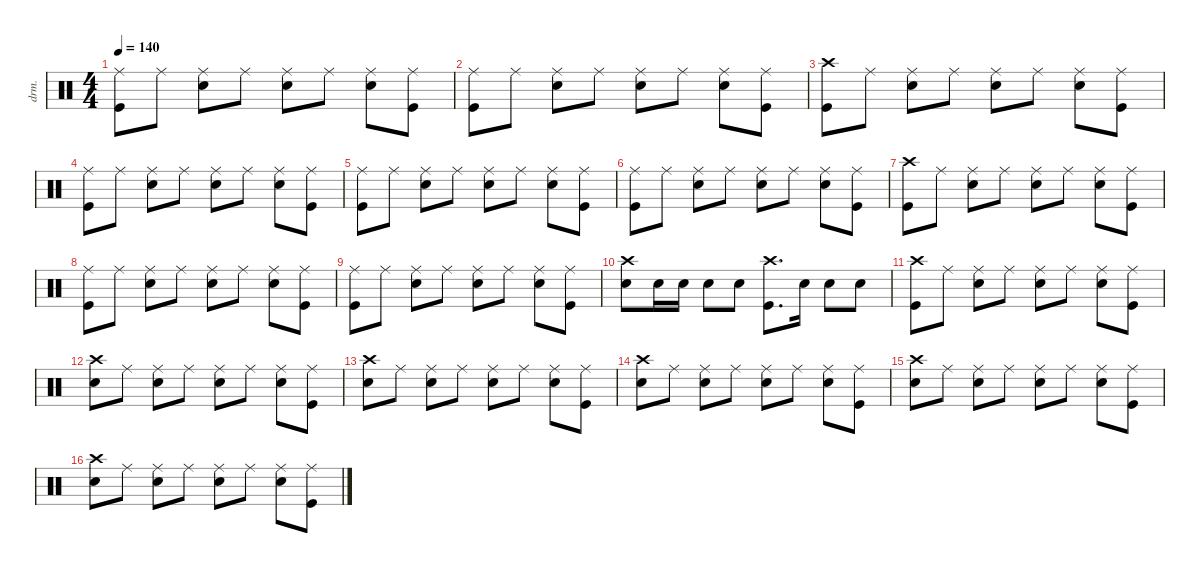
\defaultSystemsLayout 4
\hideDynamics
\bracketExtendMode nobrackets
\otherSystemsTrackNameOrientation horizontal
\track ("Drums" "drm.") {multiBarRest instrument percussion}
\staff
\articulation defaults
\ts (4 4)
\tempo 140
\clef neutral
\ks c
("Ride (middle)" "Kick (hit)").8{dy f} "Ride (middle)".8 ("Ride (middle)" "Snare (hit) 2").8 "Ride (middle)".8 ("Ride (middle)" "Snare (hit) 2").8 "Ride (middle)".8 ("Ride (middle)" "Snare (hit) 2").8 ("Ride (middle)" "Kick (hit)").8 |
("Ride (middle)" "Kick (hit)").8 "Ride (middle)".8 ("Ride (middle)" "Snare (hit) 2").8 "Ride (middle)".8 ("Ride (middle)" "Snare (hit) 2").8 "Ride (middle)".8 ("Ride (middle)" "Snare (hit) 2").8 ("Ride (middle)" "Kick (hit)").8 |
("Crash high (hit)" "Kick (hit)").8 "Ride (middle)".8 ("Ride (middle)" "Snare (hit) 2").8 "Ride (middle)".8 ("Ride (middle)" "Snare (hit) 2").8 "Ride (middle)".8 ("Ride (middle)" "Snare (hit) 2").8 ("Ride (middle)" "Kick (hit)").8 |
("Ride (middle)" "Kick (hit)").8 "Ride (middle)".8 ("Ride (middle)" "Snare (hit) 2").8 "Ride (middle)".8 ("Ride (middle)" "Snare (hit) 2").8 "Ride (middle)".8 ("Ride (middle)" "Snare (hit) 2").8 ("Ride (middle)" "Kick (hit)").8 |
("Ride (middle)" "Kick (hit)").8 "Ride (middle)".8 ("Ride (middle)" "Snare (hit) 2").8 "Ride (middle)".8 ("Ride (middle)" "Snare (hit) 2").8 "Ride (middle)".8 ("Ride (middle)" "Snare (hit) 2").8 ("Ride (middle)" "Kick (hit)").8 |
("Ride (middle)" "Kick (hit)").8 "Ride (middle)".8 ("Ride (middle)" "Snare (hit) 2").8 "Ride (middle)".8 ("Ride (middle)" "Snare (hit) 2").8 "Ride (middle)".8 ("Ride (middle)" "Snare (hit) 2").8 ("Ride (middle)" "Kick (hit)").8 |
("Crash high (hit)" "Kick (hit)").8 "Ride (middle)".8 ("Ride (middle)" "Snare (hit) 2").8 "Ride (middle)".8 ("Ride (middle)" "Snare (hit) 2").8 "Ride (middle)".8 ("Ride (middle)" "Snare (hit) 2").8 ("Ride (middle)" "Kick (hit)").8 |
("Ride (middle)" "Kick (hit)").8 "Ride (middle)".8 ("Ride (middle)" "Snare (hit) 2").8 "Ride (middle)".8 ("Ride (middle)" "Snare (hit) 2").8 "Ride (middle)".8 ("Ride (middle)" "Snare (hit) 2").8 ("Ride (middle)" "Kick (hit)").8 |
("Ride (middle)" "Kick (hit)").8 "Ride (middle)".8 ("Ride (middle)" "Snare (hit) 2").8 "Ride (middle)".8 ("Ride (middle)" "Snare (hit) 2").8 "Ride (middle)".8 ("Ride (middle)" "Snare (hit) 2").8 ("Ride (middle)" "Kick (hit)").8 |
("Crash high (hit)" "Snare (hit) 2").8 "Snare (hit) 2".16{dy mp} "Snare (hit) 2".16 "Snare (hit) 2".8{dy f} "Snare (hit) 2".8 ("Crash high (hit)" "Kick (hit)").8{d} "Snare (hit) 2".16{dy mp} "Snare (hit) 2".8{dy mf} "Snare (hit) 2".8{dy f} |
("Crash high (hit)" "Kick (hit)").8 "Ride (middle)".8 ("Ride (middle)" "Snare (hit) 2").8 "Ride (middle)".8 ("Ride (middle)" "Snare (hit) 2").8 "Ride (middle)".8 ("Ride (middle)" "Snare (hit) 2").8 ("Ride (middle)" "Kick (hit)").8 |
("Crash high (hit)" "Snare (hit) 2").8 "Ride (middle)".8 ("Ride (middle)" "Snare (hit) 2").8 "Ride (middle)".8 ("Ride (middle)" "Snare (hit) 2").8 "Ride (middle)".8 ("Ride (middle)" "Snare (hit) 2").8 ("Ride (middle)" "Kick (hit)").8 |
("Crash high (hit)" "Snare (hit) 2").8 "Ride (middle)".8 ("Ride (middle)" "Snare (hit) 2").8 "Ride (middle)".8 ("Ride (middle)" "Snare (hit) 2").8 "Ride (middle)".8 ("Ride (middle)" "Snare (hit) 2").8 ("Ride (middle)" "Kick (hit)").8 |
("Crash high (hit)" "Snare (hit) 2").8 "Ride (middle)".8 ("Ride (middle)" "Snare (hit) 2").8 "Ride (middle)".8 ("Ride (middle)" "Snare (hit) 2").8 "Ride (middle)".8 ("Ride (middle)" "Snare (hit) 2").8 ("Ride (middle)" "Kick (hit)").8 |
("Crash high (hit)" "Snare (hit) 2").8 "Ride (middle)".8 ("Ride (middle)" "Snare (hit) 2").8 "Ride (middle)".8 ("Ride (middle)" "Snare (hit) 2").8 "Ride (middle)".8 ("Ride (middle)" "Snare (hit) 2").8 ("Ride (middle)" "Kick (hit)").8 |
("Crash high (hit)" "Snare (hit) 2").8 "Ride (middle)".8 ("Ride (middle)" "Snare (hit) 2").8 "Ride (middle)".8 ("Ride (middle)" "Snare (hit) 2").8 "Ride (middle)".8 ("Ride (middle)" "Snare (hit) 2").8 ("Ride (middle)" "Kick (hit)").8
